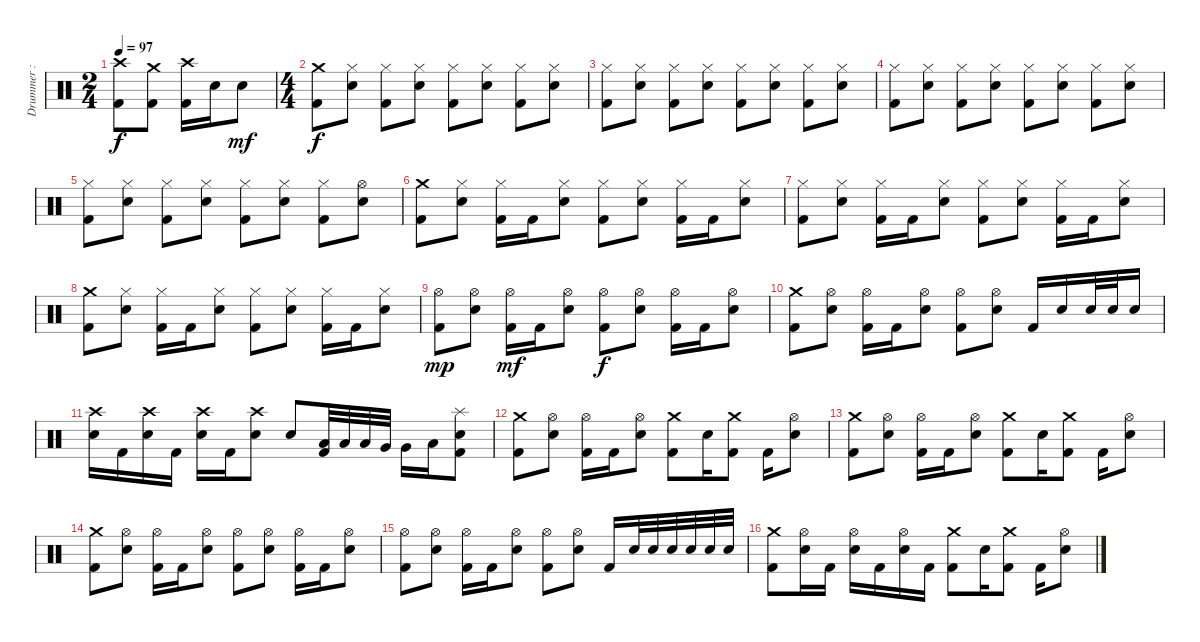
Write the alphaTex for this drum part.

\track ("Drummer : Tainaka Ritsu - Tan" "Drummer : ") {instrument percussion}
\staff {score}
\articulation defaults
\ts (2 4)
\tempo 97
\clef neutral
\ks c
("Crash high (hit)" "Kick (hit) 2").8{dy f} ("Crash medium (hit)" "Kick (hit) 2").8 ("Crash high (hit)" "Kick (hit) 2").16 "Electric Snare (hit)".16 "Electric Snare (hit)".8{dy mf} |
\ts (4 4)
("Crash medium (hit)" "Kick (hit) 2").8{dy f} ("Hi-Hat (closed)" "Electric Snare (hit)").8 ("Hi-Hat (closed)" "Kick (hit) 2").8 ("Hi-Hat (closed)" "Electric Snare (hit)").8 ("Hi-Hat (closed)" "Kick (hit) 2").8 ("Hi-Hat (closed)" "Electric Snare (hit)").8 ("Hi-Hat (closed)" "Kick (hit) 2").8 ("Hi-Hat (closed)" "Electric Snare (hit)").8 |
("Hi-Hat (closed)" "Kick (hit) 2").8 ("Hi-Hat (closed)" "Electric Snare (hit)").8 ("Hi-Hat (closed)" "Kick (hit) 2").8 ("Hi-Hat (closed)" "Electric Snare (hit)").8 ("Hi-Hat (closed)" "Kick (hit) 2").8 ("Hi-Hat (closed)" "Electric Snare (hit)").8 ("Hi-Hat (closed)" "Kick (hit) 2").8 ("Hi-Hat (closed)" "Electric Snare (hit)").8 |
("Hi-Hat (closed)" "Kick (hit) 2").8 ("Hi-Hat (closed)" "Electric Snare (hit)").8 ("Hi-Hat (closed)" "Kick (hit) 2").8 ("Hi-Hat (closed)" "Electric Snare (hit)").8 ("Hi-Hat (closed)" "Kick (hit) 2").8 ("Hi-Hat (closed)" "Electric Snare (hit)").8 ("Hi-Hat (closed)" "Kick (hit) 2").8 ("Hi-Hat (closed)" "Electric Snare (hit)").8 |
("Hi-Hat (closed)" "Kick (hit) 2").8 ("Hi-Hat (closed)" "Electric Snare (hit)").8 ("Hi-Hat (closed)" "Kick (hit) 2").8 ("Hi-Hat (closed)" "Electric Snare (hit)").8 ("Hi-Hat (closed)" "Kick (hit) 2").8 ("Hi-Hat (closed)" "Electric Snare (hit)").8 ("Hi-Hat (closed)" "Kick (hit) 2").8 ("Hi-Hat (open)" "Electric Snare (hit)").8 |
("Crash medium (hit)" "Kick (hit) 2").8 ("Hi-Hat (closed)" "Electric Snare (hit)").8 ("Hi-Hat (closed)" "Kick (hit) 2").16 "Kick (hit) 2".16 ("Hi-Hat (closed)" "Electric Snare (hit)").8 ("Hi-Hat (closed)" "Kick (hit) 2").8 ("Hi-Hat (closed)" "Electric Snare (hit)").8 ("Hi-Hat (closed)" "Kick (hit) 2").16 "Kick (hit) 2".16 ("Hi-Hat (closed)" "Electric Snare (hit)").8 |
("Hi-Hat (closed)" "Kick (hit) 2").8 ("Hi-Hat (closed)" "Electric Snare (hit)").8 ("Hi-Hat (closed)" "Kick (hit) 2").16 "Kick (hit) 2".16 ("Hi-Hat (closed)" "Electric Snare (hit)").8 ("Hi-Hat (closed)" "Kick (hit) 2").8 ("Hi-Hat (closed)" "Electric Snare (hit)").8 ("Hi-Hat (closed)" "Kick (hit) 2").16 "Kick (hit) 2".16 ("Hi-Hat (closed)" "Electric Snare (hit)").8 |
("Crash medium (hit)" "Kick (hit) 2").8 ("Hi-Hat (closed)" "Electric Snare (hit)").8 ("Hi-Hat (closed)" "Kick (hit) 2").16 "Kick (hit) 2".16 ("Hi-Hat (closed)" "Electric Snare (hit)").8 ("Hi-Hat (closed)" "Kick (hit) 2").8 ("Hi-Hat (closed)" "Electric Snare (hit)").8 ("Hi-Hat (closed)" "Kick (hit) 2").16 "Kick (hit) 2".16 ("Hi-Hat (closed)" "Electric Snare (hit)").8 |
("Hi-Hat (open)" "Kick (hit) 2").8{dy mp} ("Hi-Hat (open)" "Electric Snare (hit)").8 ("Hi-Hat (open)" "Kick (hit) 2").16{dy mf} "Kick (hit) 2".16 ("Hi-Hat (open)" "Electric Snare (hit)").8 ("Hi-Hat (open)" "Kick (hit) 2").8{dy f} ("Hi-Hat (open)" "Electric Snare (hit)").8 ("Hi-Hat (open)" "Kick (hit) 2").16 "Kick (hit) 2".16 ("Hi-Hat (open)" "Electric Snare (hit)").8 |
("Crash medium (hit)" "Kick (hit) 2").8 ("Hi-Hat (open)" "Electric Snare (hit)").8 ("Hi-Hat (open)" "Kick (hit) 2").16 "Kick (hit) 2".16 ("Hi-Hat (open)" "Electric Snare (hit)").8 ("Hi-Hat (open)" "Kick (hit) 2").8 ("Hi-Hat (open)" "Electric Snare (hit)").8 "Kick (hit) 2".16 "Electric Snare (hit)".16 "Electric Snare (hit)".32 "Electric Snare (hit)".32 "Electric Snare (hit)".16 |
("Crash high (hit)" "Electric Snare (hit)").16 "Kick (hit) 2".16 ("Crash high (hit)" "Electric Snare (hit)").16 "Kick (hit) 2".16 ("Crash high (hit)" "Electric Snare (hit)").16 "Kick (hit) 2".16 ("Crash high (hit)" "Electric Snare (hit)").8 "Electric Snare (hit)".8 ("Low Tom (hit)" "Kick (hit) 2").32 "Low Tom (hit)".32 "Low Tom (hit)".32 "Very Low Tom (hit)".32 "Very Low Tom (hit)".16 "Low Floor Tom (hit)".16 ("Splash (hit)" "Electric Snare (hit)" "Kick (hit) 2").8 |
("Crash medium (hit)" "Kick (hit) 2").8 ("Hi-Hat (open)" "Electric Snare (hit)").8 ("Hi-Hat (open)" "Kick (hit) 2").16 "Kick (hit) 2".16 ("Hi-Hat (open)" "Electric Snare (hit)").8 ("Crash medium (hit)" "Kick (hit) 2").8 "Electric Snare (hit)".16 ("Crash medium (hit)" "Kick (hit) 2").8 "Kick (hit) 2".16 ("Hi-Hat (open)" "Electric Snare (hit)").8 |
("Crash medium (hit)" "Kick (hit) 2").8 ("Hi-Hat (open)" "Electric Snare (hit)").8 ("Hi-Hat (open)" "Kick (hit) 2").16 "Kick (hit) 2".16 ("Hi-Hat (open)" "Electric Snare (hit)").8 ("Crash medium (hit)" "Kick (hit) 2").8 "Electric Snare (hit)".16 ("Crash medium (hit)" "Kick (hit) 2").8 "Kick (hit) 2".16 ("Hi-Hat (open)" "Electric Snare (hit)").8 |
("Crash medium (hit)" "Kick (hit) 2").8 ("Hi-Hat (open)" "Electric Snare (hit)").8 ("Hi-Hat (open)" "Kick (hit) 2").16 "Kick (hit) 2".16 ("Hi-Hat (open)" "Electric Snare (hit)").8 ("Hi-Hat (open)" "Kick (hit) 2").8 ("Hi-Hat (open)" "Electric Snare (hit)").8 ("Hi-Hat (open)" "Kick (hit) 2").16 "Kick (hit) 2".16 ("Hi-Hat (open)" "Electric Snare (hit)").8 |
("Hi-Hat (open)" "Kick (hit) 2").8 ("Hi-Hat (open)" "Electric Snare (hit)").8 ("Hi-Hat (open)" "Kick (hit) 2").16 "Kick (hit) 2".16 ("Hi-Hat (open)" "Electric Snare (hit)").8 ("Hi-Hat (open)" "Kick (hit) 2").8 ("Hi-Hat (open)" "Electric Snare (hit)").8 "Kick (hit) 2".16 "Electric Snare (hit)".32 "Electric Snare (hit)".32 "Electric Snare (hit)".32 "Electric Snare (hit)".32 "Electric Snare (hit)".32 "Electric Snare (hit)".32 |
("Crash medium (hit)" "Kick (hit) 2").8 ("Hi-Hat (open)" "Electric Snare (hit)").16 "Kick (hit) 2".16 ("Hi-Hat (open)" "Electric Snare (hit)").16 "Kick (hit) 2".16 ("Hi-Hat (open)" "Electric Snare (hit)").16 "Kick (hit) 2".16 ("Crash medium (hit)" "Kick (hit) 2").8 "Electric Snare (hit)".16 ("Crash medium (hit)" "Kick (hit) 2").8 "Kick (hit) 2".16 ("Hi-Hat (open)" "Electric Snare (hit)").8
